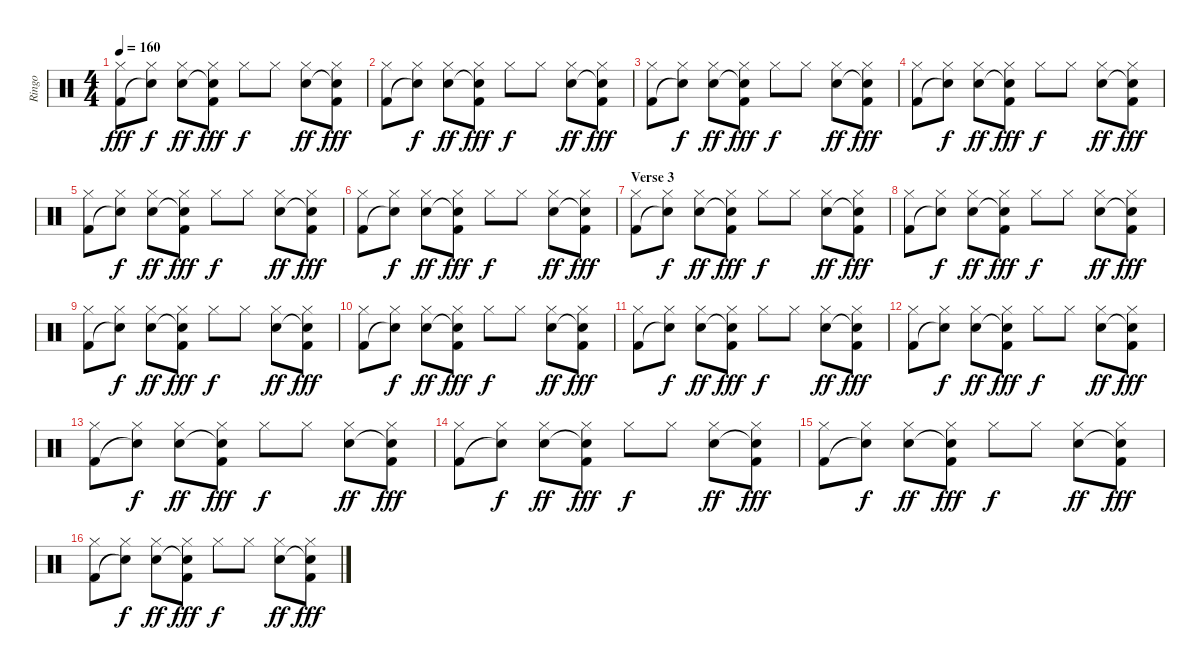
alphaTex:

\track ("Ringo" "Ringo") {instrument percussion}
\staff {score}
\articulation defaults
\ts (4 4)
\tempo 160
\clef neutral
\ks c
("Hi-Hat (closed)" "Kick (hit) 2").8{dy fff} ("Hi-Hat (closed)" "Snare (hit)"{t}).8{dy f} ("Hi-Hat (closed)" "Snare (hit) 2").8{dy ff} ("Hi-Hat (closed)" "Snare (hit)"{t} "Kick (hit) 2").8{dy fff} "Hi-Hat (closed)".8{dy f} "Hi-Hat (closed)".8 ("Hi-Hat (closed)" "Snare (hit) 2").8{dy ff} ("Hi-Hat (closed)" "Snare (hit)"{t} "Kick (hit) 2").8{dy fff} |
("Hi-Hat (closed)" "Kick (hit) 2").8 ("Hi-Hat (closed)" "Snare (hit)"{t}).8{dy f} ("Hi-Hat (closed)" "Snare (hit) 2").8{dy ff} ("Hi-Hat (closed)" "Snare (hit)"{t} "Kick (hit) 2").8{dy fff} "Hi-Hat (closed)".8{dy f} "Hi-Hat (closed)".8 ("Hi-Hat (closed)" "Snare (hit) 2").8{dy ff} ("Hi-Hat (closed)" "Snare (hit)"{t} "Kick (hit) 2").8{dy fff} |
("Hi-Hat (closed)" "Kick (hit) 2").8 ("Hi-Hat (closed)" "Snare (hit)"{t}).8{dy f} ("Hi-Hat (closed)" "Snare (hit) 2").8{dy ff} ("Hi-Hat (closed)" "Snare (hit)"{t} "Kick (hit) 2").8{dy fff} "Hi-Hat (closed)".8{dy f} "Hi-Hat (closed)".8 ("Hi-Hat (closed)" "Snare (hit) 2").8{dy ff} ("Hi-Hat (closed)" "Snare (hit)"{t} "Kick (hit) 2").8{dy fff} |
("Hi-Hat (closed)" "Kick (hit) 2").8 ("Hi-Hat (closed)" "Snare (hit)"{t}).8{dy f} ("Hi-Hat (closed)" "Snare (hit) 2").8{dy ff} ("Hi-Hat (closed)" "Snare (hit)"{t} "Kick (hit) 2").8{dy fff} "Hi-Hat (closed)".8{dy f} "Hi-Hat (closed)".8 ("Hi-Hat (closed)" "Snare (hit) 2").8{dy ff} ("Hi-Hat (closed)" "Snare (hit)"{t} "Kick (hit) 2").8{dy fff} |
("Hi-Hat (closed)" "Kick (hit) 2").8 ("Hi-Hat (closed)" "Snare (hit)"{t}).8{dy f} ("Hi-Hat (closed)" "Snare (hit) 2").8{dy ff} ("Hi-Hat (closed)" "Snare (hit)"{t} "Kick (hit) 2").8{dy fff} "Hi-Hat (closed)".8{dy f} "Hi-Hat (closed)".8 ("Hi-Hat (closed)" "Snare (hit) 2").8{dy ff} ("Hi-Hat (closed)" "Snare (hit)"{t} "Kick (hit) 2").8{dy fff} |
("Hi-Hat (closed)" "Kick (hit) 2").8 ("Hi-Hat (closed)" "Snare (hit)"{t}).8{dy f} ("Hi-Hat (closed)" "Snare (hit) 2").8{dy ff} ("Hi-Hat (closed)" "Snare (hit)"{t} "Kick (hit) 2").8{dy fff} "Hi-Hat (closed)".8{dy f} "Hi-Hat (closed)".8 ("Hi-Hat (closed)" "Snare (hit) 2").8{dy ff} ("Hi-Hat (closed)" "Snare (hit)"{t} "Kick (hit) 2").8{dy fff} |
\section ("" "Verse 3")
("Hi-Hat (closed)" "Kick (hit) 2").8 ("Hi-Hat (closed)" "Snare (hit)"{t}).8{dy f} ("Hi-Hat (closed)" "Snare (hit) 2").8{dy ff} ("Hi-Hat (closed)" "Snare (hit)"{t} "Kick (hit) 2").8{dy fff} "Hi-Hat (closed)".8{dy f} "Hi-Hat (closed)".8 ("Hi-Hat (closed)" "Snare (hit) 2").8{dy ff} ("Hi-Hat (closed)" "Snare (hit)"{t} "Kick (hit) 2").8{dy fff} |
("Hi-Hat (closed)" "Kick (hit) 2").8 ("Hi-Hat (closed)" "Snare (hit)"{t}).8{dy f} ("Hi-Hat (closed)" "Snare (hit) 2").8{dy ff} ("Hi-Hat (closed)" "Snare (hit)"{t} "Kick (hit) 2").8{dy fff} "Hi-Hat (closed)".8{dy f} "Hi-Hat (closed)".8 ("Hi-Hat (closed)" "Snare (hit) 2").8{dy ff} ("Hi-Hat (closed)" "Snare (hit)"{t} "Kick (hit) 2").8{dy fff} |
("Hi-Hat (closed)" "Kick (hit) 2").8 ("Hi-Hat (closed)" "Snare (hit)"{t}).8{dy f} ("Hi-Hat (closed)" "Snare (hit) 2").8{dy ff} ("Hi-Hat (closed)" "Snare (hit)"{t} "Kick (hit) 2").8{dy fff} "Hi-Hat (closed)".8{dy f} "Hi-Hat (closed)".8 ("Hi-Hat (closed)" "Snare (hit) 2").8{dy ff} ("Hi-Hat (closed)" "Snare (hit)"{t} "Kick (hit) 2").8{dy fff} |
("Hi-Hat (closed)" "Kick (hit) 2").8 ("Hi-Hat (closed)" "Snare (hit)"{t}).8{dy f} ("Hi-Hat (closed)" "Snare (hit) 2").8{dy ff} ("Hi-Hat (closed)" "Snare (hit)"{t} "Kick (hit) 2").8{dy fff} "Hi-Hat (closed)".8{dy f} "Hi-Hat (closed)".8 ("Hi-Hat (closed)" "Snare (hit) 2").8{dy ff} ("Hi-Hat (closed)" "Snare (hit)"{t} "Kick (hit) 2").8{dy fff} |
("Hi-Hat (closed)" "Kick (hit) 2").8 ("Hi-Hat (closed)" "Snare (hit)"{t}).8{dy f} ("Hi-Hat (closed)" "Snare (hit) 2").8{dy ff} ("Hi-Hat (closed)" "Snare (hit)"{t} "Kick (hit) 2").8{dy fff} "Hi-Hat (closed)".8{dy f} "Hi-Hat (closed)".8 ("Hi-Hat (closed)" "Snare (hit) 2").8{dy ff} ("Hi-Hat (closed)" "Snare (hit)"{t} "Kick (hit) 2").8{dy fff} |
("Hi-Hat (closed)" "Kick (hit) 2").8 ("Hi-Hat (closed)" "Snare (hit)"{t}).8{dy f} ("Hi-Hat (closed)" "Snare (hit) 2").8{dy ff} ("Hi-Hat (closed)" "Snare (hit)"{t} "Kick (hit) 2").8{dy fff} "Hi-Hat (closed)".8{dy f} "Hi-Hat (closed)".8 ("Hi-Hat (closed)" "Snare (hit) 2").8{dy ff} ("Hi-Hat (closed)" "Snare (hit)"{t} "Kick (hit) 2").8{dy fff} |
("Hi-Hat (closed)" "Kick (hit) 2").8 ("Hi-Hat (closed)" "Snare (hit)"{t}).8{dy f} ("Hi-Hat (closed)" "Snare (hit) 2").8{dy ff} ("Hi-Hat (closed)" "Snare (hit)"{t} "Kick (hit) 2").8{dy fff} "Hi-Hat (closed)".8{dy f} "Hi-Hat (closed)".8 ("Hi-Hat (closed)" "Snare (hit) 2").8{dy ff} ("Hi-Hat (closed)" "Snare (hit)"{t} "Kick (hit) 2").8{dy fff} |
("Hi-Hat (closed)" "Kick (hit) 2").8 ("Hi-Hat (closed)" "Snare (hit)"{t}).8{dy f} ("Hi-Hat (closed)" "Snare (hit) 2").8{dy ff} ("Hi-Hat (closed)" "Snare (hit)"{t} "Kick (hit) 2").8{dy fff} "Hi-Hat (closed)".8{dy f} "Hi-Hat (closed)".8 ("Hi-Hat (closed)" "Snare (hit) 2").8{dy ff} ("Hi-Hat (closed)" "Snare (hit)"{t} "Kick (hit) 2").8{dy fff} |
("Hi-Hat (closed)" "Kick (hit) 2").8 ("Hi-Hat (closed)" "Snare (hit)"{t}).8{dy f} ("Hi-Hat (closed)" "Snare (hit) 2").8{dy ff} ("Hi-Hat (closed)" "Snare (hit)"{t} "Kick (hit) 2").8{dy fff} "Hi-Hat (closed)".8{dy f} "Hi-Hat (closed)".8 ("Hi-Hat (closed)" "Snare (hit) 2").8{dy ff} ("Hi-Hat (closed)" "Snare (hit)"{t} "Kick (hit) 2").8{dy fff} |
("Hi-Hat (closed)" "Kick (hit) 2").8 ("Hi-Hat (closed)" "Snare (hit)"{t}).8{dy f} ("Hi-Hat (closed)" "Snare (hit) 2").8{dy ff} ("Hi-Hat (closed)" "Snare (hit)"{t} "Kick (hit) 2").8{dy fff} "Hi-Hat (closed)".8{dy f} "Hi-Hat (closed)".8 ("Hi-Hat (closed)" "Snare (hit) 2").8{dy ff} ("Hi-Hat (closed)" "Snare (hit)"{t} "Kick (hit) 2").8{dy fff}
